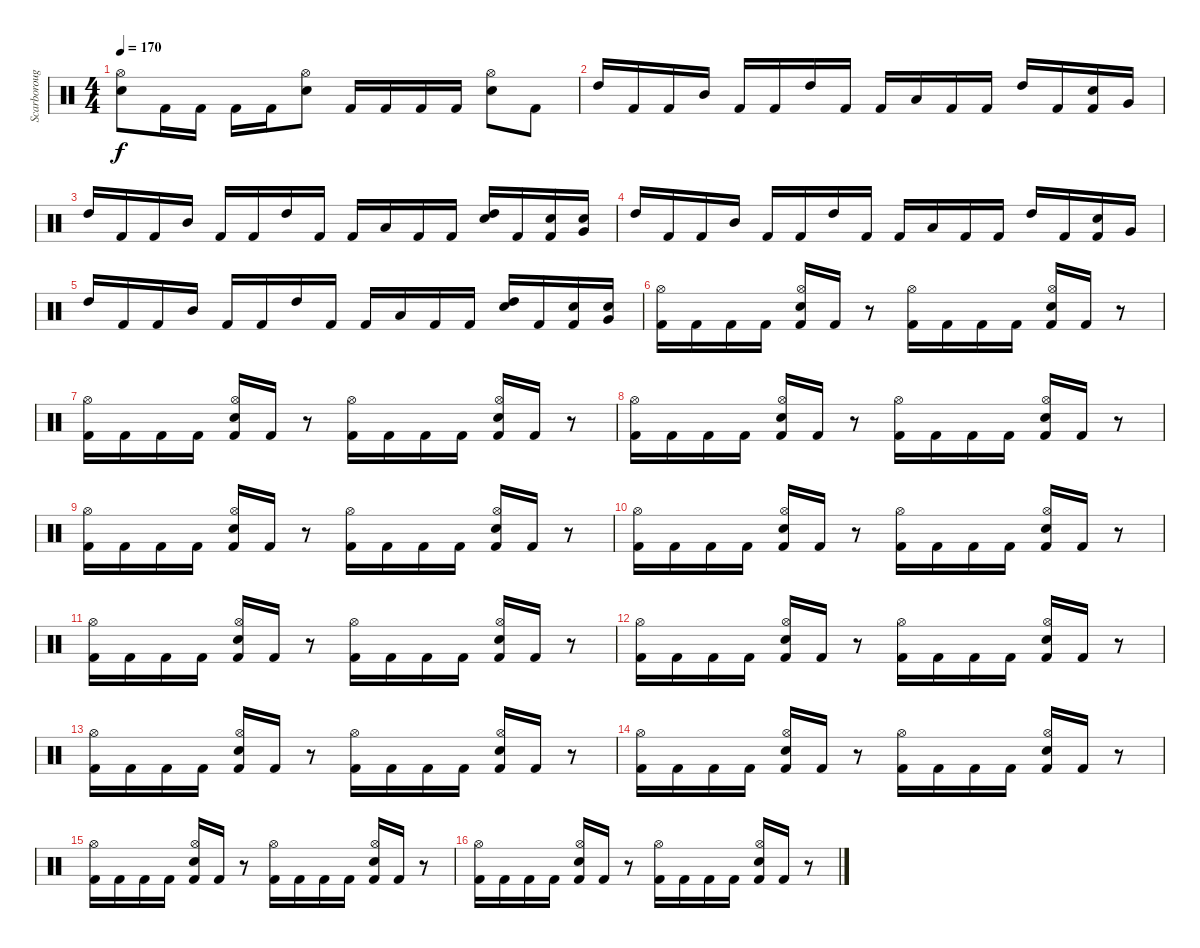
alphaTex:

\track ("Scarborough" "Scarboroug") {instrument percussion}
\staff {score}
\articulation defaults
\ts (4 4)
\tempo 170
\clef neutral
\ks c
("Snare (hit) 2" "Hi-Hat (open)").8{dy f} "Kick (hit) 2".16 "Kick (hit) 2".16 "Kick (hit) 2".16 "Kick (hit) 2".16 ("Snare (hit) 2" "Hi-Hat (open)").8 "Kick (hit) 2".16 "Kick (hit) 2".16 "Kick (hit) 2".16 "Kick (hit) 2".16 ("Snare (hit) 2" "Hi-Hat (open)").8 "Kick (hit) 2".8 |
"High Tom (hit)".16 "Kick (hit) 2".16 "Kick (hit) 2".16 "Mid Tom (hit)".16 "Kick (hit) 2".16 "Kick (hit) 2".16 "High Tom (hit)".16 "Kick (hit) 2".16 "Kick (hit) 2".16 "Low Tom (hit)".16 "Kick (hit) 2".16 "Kick (hit) 2".16 "High Tom (hit)".16 "Kick (hit) 2".16 ("Kick (hit) 2" "Snare (hit) 2").16 "Very Low Tom (hit)".16 |
"High Tom (hit)".16 "Kick (hit) 2".16 "Kick (hit) 2".16 "Mid Tom (hit)".16 "Kick (hit) 2".16 "Kick (hit) 2".16 "High Tom (hit)".16 "Kick (hit) 2".16 "Kick (hit) 2".16 "Low Tom (hit)".16 "Kick (hit) 2".16 "Kick (hit) 2".16 ("High Tom (hit)" "Snare (hit) 2").16 "Kick (hit) 2".16 ("Kick (hit) 2" "Snare (hit) 2").16 ("Very Low Tom (hit)" "Snare (hit) 2").16 |
"High Tom (hit)".16 "Kick (hit) 2".16 "Kick (hit) 2".16 "Mid Tom (hit)".16 "Kick (hit) 2".16 "Kick (hit) 2".16 "High Tom (hit)".16 "Kick (hit) 2".16 "Kick (hit) 2".16 "Low Tom (hit)".16 "Kick (hit) 2".16 "Kick (hit) 2".16 "High Tom (hit)".16 "Kick (hit) 2".16 ("Kick (hit) 2" "Snare (hit) 2").16 "Very Low Tom (hit)".16 |
"High Tom (hit)".16 "Kick (hit) 2".16 "Kick (hit) 2".16 "Mid Tom (hit)".16 "Kick (hit) 2".16 "Kick (hit) 2".16 "High Tom (hit)".16 "Kick (hit) 2".16 "Kick (hit) 2".16 "Low Tom (hit)".16 "Kick (hit) 2".16 "Kick (hit) 2".16 ("High Tom (hit)" "Snare (hit) 2").16 "Kick (hit) 2".16 ("Kick (hit) 2" "Snare (hit) 2").16 ("Very Low Tom (hit)" "Snare (hit) 2").16 |
("Hi-Hat (open)" "Kick (hit) 2").16 "Kick (hit) 2".16 "Kick (hit) 2".16 "Kick (hit) 2".16 ("Hi-Hat (open)" "Kick (hit) 2" "Snare (hit) 2").16 "Kick (hit) 2".16 r.8 ("Hi-Hat (open)" "Kick (hit) 2").16 "Kick (hit) 2".16 "Kick (hit) 2".16 "Kick (hit) 2".16 ("Hi-Hat (open)" "Kick (hit) 2" "Snare (hit) 2").16 "Kick (hit) 2".16 r.8 |
("Hi-Hat (open)" "Kick (hit) 2").16 "Kick (hit) 2".16 "Kick (hit) 2".16 "Kick (hit) 2".16 ("Hi-Hat (open)" "Kick (hit) 2" "Snare (hit) 2").16 "Kick (hit) 2".16 r.8 ("Hi-Hat (open)" "Kick (hit) 2").16 "Kick (hit) 2".16 "Kick (hit) 2".16 "Kick (hit) 2".16 ("Hi-Hat (open)" "Kick (hit) 2" "Snare (hit) 2").16 "Kick (hit) 2".16 r.8 |
("Hi-Hat (open)" "Kick (hit) 2").16 "Kick (hit) 2".16 "Kick (hit) 2".16 "Kick (hit) 2".16 ("Hi-Hat (open)" "Kick (hit) 2" "Snare (hit) 2").16 "Kick (hit) 2".16 r.8 ("Hi-Hat (open)" "Kick (hit) 2").16 "Kick (hit) 2".16 "Kick (hit) 2".16 "Kick (hit) 2".16 ("Hi-Hat (open)" "Kick (hit) 2" "Snare (hit) 2").16 "Kick (hit) 2".16 r.8 |
("Hi-Hat (open)" "Kick (hit) 2").16 "Kick (hit) 2".16 "Kick (hit) 2".16 "Kick (hit) 2".16 ("Hi-Hat (open)" "Kick (hit) 2" "Snare (hit) 2").16 "Kick (hit) 2".16 r.8 ("Hi-Hat (open)" "Kick (hit) 2").16 "Kick (hit) 2".16 "Kick (hit) 2".16 "Kick (hit) 2".16 ("Hi-Hat (open)" "Kick (hit) 2" "Snare (hit) 2").16 "Kick (hit) 2".16 r.8 |
("Hi-Hat (open)" "Kick (hit) 2").16 "Kick (hit) 2".16 "Kick (hit) 2".16 "Kick (hit) 2".16 ("Hi-Hat (open)" "Kick (hit) 2" "Snare (hit) 2").16 "Kick (hit) 2".16 r.8 ("Hi-Hat (open)" "Kick (hit) 2").16 "Kick (hit) 2".16 "Kick (hit) 2".16 "Kick (hit) 2".16 ("Hi-Hat (open)" "Kick (hit) 2" "Snare (hit) 2").16 "Kick (hit) 2".16 r.8 |
("Hi-Hat (open)" "Kick (hit) 2").16 "Kick (hit) 2".16 "Kick (hit) 2".16 "Kick (hit) 2".16 ("Hi-Hat (open)" "Kick (hit) 2" "Snare (hit) 2").16 "Kick (hit) 2".16 r.8 ("Hi-Hat (open)" "Kick (hit) 2").16 "Kick (hit) 2".16 "Kick (hit) 2".16 "Kick (hit) 2".16 ("Hi-Hat (open)" "Kick (hit) 2" "Snare (hit) 2").16 "Kick (hit) 2".16 r.8 |
("Hi-Hat (open)" "Kick (hit) 2").16 "Kick (hit) 2".16 "Kick (hit) 2".16 "Kick (hit) 2".16 ("Hi-Hat (open)" "Kick (hit) 2" "Snare (hit) 2").16 "Kick (hit) 2".16 r.8 ("Hi-Hat (open)" "Kick (hit) 2").16 "Kick (hit) 2".16 "Kick (hit) 2".16 "Kick (hit) 2".16 ("Hi-Hat (open)" "Kick (hit) 2" "Snare (hit) 2").16 "Kick (hit) 2".16 r.8 |
("Hi-Hat (open)" "Kick (hit) 2").16 "Kick (hit) 2".16 "Kick (hit) 2".16 "Kick (hit) 2".16 ("Hi-Hat (open)" "Kick (hit) 2" "Snare (hit) 2").16 "Kick (hit) 2".16 r.8 ("Hi-Hat (open)" "Kick (hit) 2").16 "Kick (hit) 2".16 "Kick (hit) 2".16 "Kick (hit) 2".16 ("Hi-Hat (open)" "Kick (hit) 2" "Snare (hit) 2").16 "Kick (hit) 2".16 r.8 |
("Hi-Hat (open)" "Kick (hit) 2").16 "Kick (hit) 2".16 "Kick (hit) 2".16 "Kick (hit) 2".16 ("Hi-Hat (open)" "Kick (hit) 2" "Snare (hit) 2").16 "Kick (hit) 2".16 r.8 ("Hi-Hat (open)" "Kick (hit) 2").16 "Kick (hit) 2".16 "Kick (hit) 2".16 "Kick (hit) 2".16 ("Hi-Hat (open)" "Kick (hit) 2" "Snare (hit) 2").16 "Kick (hit) 2".16 r.8 |
("Hi-Hat (open)" "Kick (hit) 2").16 "Kick (hit) 2".16 "Kick (hit) 2".16 "Kick (hit) 2".16 ("Hi-Hat (open)" "Kick (hit) 2" "Snare (hit) 2").16 "Kick (hit) 2".16 r.8 ("Hi-Hat (open)" "Kick (hit) 2").16 "Kick (hit) 2".16 "Kick (hit) 2".16 "Kick (hit) 2".16 ("Hi-Hat (open)" "Kick (hit) 2" "Snare (hit) 2").16 "Kick (hit) 2".16 r.8 |
("Hi-Hat (open)" "Kick (hit) 2").16 "Kick (hit) 2".16 "Kick (hit) 2".16 "Kick (hit) 2".16 ("Hi-Hat (open)" "Kick (hit) 2" "Snare (hit) 2").16 "Kick (hit) 2".16 r.8 ("Hi-Hat (open)" "Kick (hit) 2").16 "Kick (hit) 2".16 "Kick (hit) 2".16 "Kick (hit) 2".16 ("Hi-Hat (open)" "Kick (hit) 2" "Snare (hit) 2").16 "Kick (hit) 2".16 r.8
